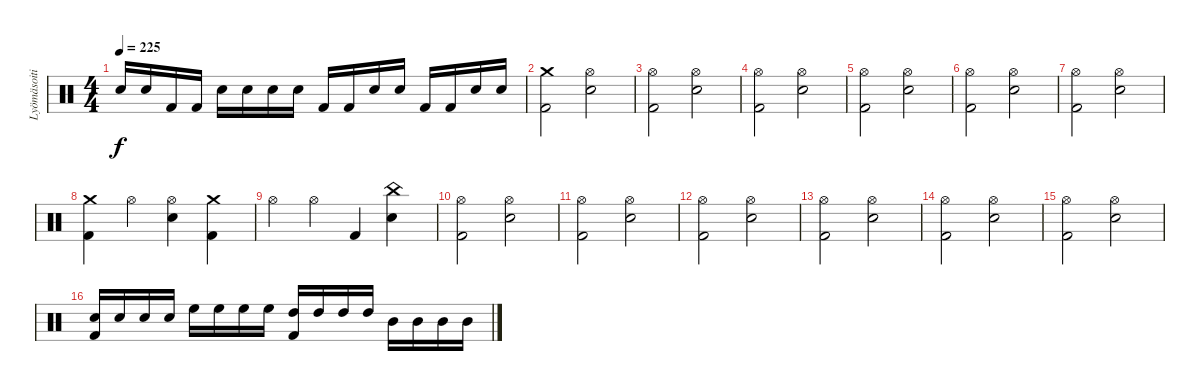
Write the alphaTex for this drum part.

\track ("Lyömäsoitin" "Lyömäsoiti") {instrument percussion}
\staff {score}
\articulation defaults
\ts (4 4)
\tempo 225
\clef neutral
\ks c "Snare (hit) 2".16{dy f} "Snare (hit) 2".16 "Kick (hit) 2".16 "Kick (hit) 2".16 "Snare (hit) 2".16 "Snare (hit) 2".16 "Snare (hit) 2".16 "Snare (hit) 2".16 "Kick (hit) 2".16 "Kick (hit) 2".16 "Snare (hit) 2".16 "Snare (hit) 2".16 "Kick (hit) 2".16 "Kick (hit) 2".16 "Snare (hit) 2".16 "Snare (hit) 2".16
|
("Crash medium (hit)" "Kick (hit) 2").2 ("Hi-Hat (open)" "Snare (hit) 2").2 |
("Hi-Hat (open)" "Kick (hit) 2").2 ("Hi-Hat (open)" "Snare (hit) 2").2 |
("Hi-Hat (open)" "Kick (hit) 2").2 ("Hi-Hat (open)" "Snare (hit) 2").2 |
("Hi-Hat (open)" "Kick (hit) 2").2 ("Hi-Hat (open)" "Snare (hit) 2").2 |
("Hi-Hat (open)" "Kick (hit) 2").2 ("Hi-Hat (open)" "Snare (hit) 2").2 |
("Hi-Hat (open)" "Kick (hit) 2").2 ("Hi-Hat (open)" "Snare (hit) 2").2 |
("Crash medium (hit)" "Kick (hit) 2").4 "Hi-Hat (open)".4 ("Hi-Hat (open)" "Snare (hit) 2").4 ("Crash medium (hit)" "Kick (hit) 2").4 |
"Hi-Hat (open)".4 "Hi-Hat (open)".4 "Kick (hit) 2".4 ("China (hit)" "Snare (hit) 2").4 |
("Hi-Hat (open)" "Kick (hit) 2").2 ("Hi-Hat (open)" "Snare (hit) 2").2 |
("Hi-Hat (open)" "Kick (hit) 2").2 ("Hi-Hat (open)" "Snare (hit) 2").2 |
("Hi-Hat (open)" "Kick (hit) 2").2 ("Hi-Hat (open)" "Snare (hit) 2").2 |
("Hi-Hat (open)" "Kick (hit) 2").2 ("Hi-Hat (open)" "Snare (hit) 2").2 |
("Hi-Hat (open)" "Kick (hit) 2").2 ("Hi-Hat (open)" "Snare (hit) 2").2 |
("Hi-Hat (open)" "Kick (hit) 2").2 ("Hi-Hat (open)" "Snare (hit) 2").2 |
("Snare (hit) 2" "Kick (hit) 2").16 "Snare (hit) 2".16 "Snare (hit) 2".16 "Snare (hit) 2".16 "High Floor Tom (hit)".16 "High Floor Tom (hit)".16 "High Floor Tom (hit)".16 "High Floor Tom (hit)".16 ("High Tom (hit)" "Kick (hit) 2").16 "High Tom (hit)".16 "High Tom (hit)".16 "High Tom (hit)".16 "Mid Tom (hit)".16 "Mid Tom (hit)".16 "Mid Tom (hit)".16 "Mid Tom (hit)".16
